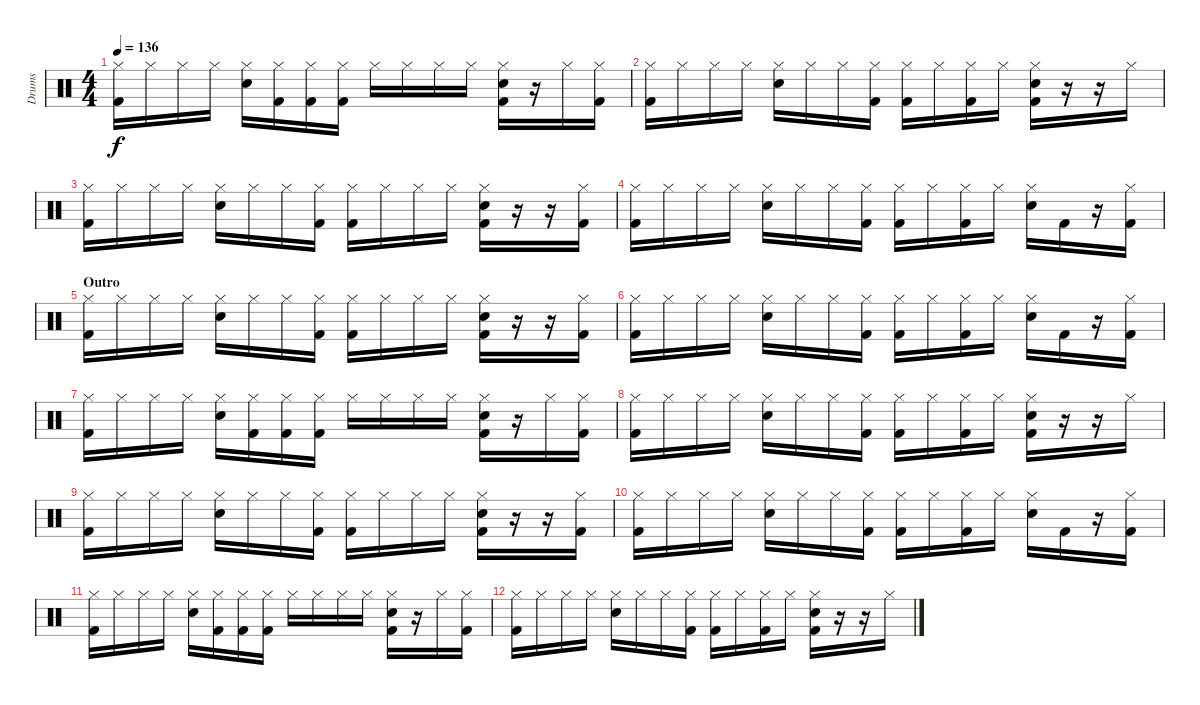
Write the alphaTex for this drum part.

\track ("Drums" "Drums") {instrument percussion}
\staff {score}
\articulation defaults
\ts (4 4)
\tempo 136
\clef neutral
\ks c
("Hi-Hat (closed)" "Kick (hit) 2").16{dy f} "Hi-Hat (closed)".16 "Hi-Hat (closed)".16 "Hi-Hat (closed)".16 ("Electric Snare (hit)" "Hi-Hat (closed)").16 ("Hi-Hat (closed)" "Kick (hit) 2").16 ("Hi-Hat (closed)" "Kick (hit) 2").16 ("Hi-Hat (closed)" "Kick (hit) 2").16 "Hi-Hat (closed)".16 "Hi-Hat (closed)".16 "Hi-Hat (closed)".16 "Hi-Hat (closed)".16 ("Electric Snare (hit)" "Hi-Hat (closed)" "Kick (hit) 2").16 r.16 "Hi-Hat (closed)".16 ("Hi-Hat (closed)" "Kick (hit) 2").16 |
("Hi-Hat (closed)" "Kick (hit) 2").16 "Hi-Hat (closed)".16 "Hi-Hat (closed)".16 "Hi-Hat (closed)".16 ("Electric Snare (hit)" "Hi-Hat (closed)").16 "Hi-Hat (closed)".16 "Hi-Hat (closed)".16 ("Hi-Hat (closed)" "Kick (hit) 2").16 ("Hi-Hat (closed)" "Kick (hit) 2").16 "Hi-Hat (closed)".16 ("Hi-Hat (closed)" "Kick (hit) 2").16 "Hi-Hat (closed)".16 ("Electric Snare (hit)" "Hi-Hat (closed)" "Kick (hit) 2").16 r.16 r.16 "Hi-Hat (closed)".16 |
("Hi-Hat (closed)" "Kick (hit) 2").16 "Hi-Hat (closed)".16 "Hi-Hat (closed)".16 "Hi-Hat (closed)".16 ("Electric Snare (hit)" "Hi-Hat (closed)").16 "Hi-Hat (closed)".16 "Hi-Hat (closed)".16 ("Hi-Hat (closed)" "Kick (hit) 2").16 ("Hi-Hat (closed)" "Kick (hit) 2").16 "Hi-Hat (closed)".16 "Hi-Hat (closed)".16 "Hi-Hat (closed)".16 ("Electric Snare (hit)" "Hi-Hat (closed)" "Kick (hit) 2").16 r.16 r.16 ("Hi-Hat (closed)" "Kick (hit) 2").16 |
("Hi-Hat (closed)" "Kick (hit) 2").16 "Hi-Hat (closed)".16 "Hi-Hat (closed)".16 "Hi-Hat (closed)".16 ("Electric Snare (hit)" "Hi-Hat (closed)").16 "Hi-Hat (closed)".16 "Hi-Hat (closed)".16 ("Hi-Hat (closed)" "Kick (hit) 2").16 ("Hi-Hat (closed)" "Kick (hit) 2").16 "Hi-Hat (closed)".16 ("Hi-Hat (closed)" "Kick (hit) 2").16 "Hi-Hat (closed)".16 ("Electric Snare (hit)" "Hi-Hat (closed)").16 "Kick (hit) 2".16 r.16 ("Hi-Hat (closed)" "Kick (hit) 2").16 |
\section ("" "Outro")
("Hi-Hat (closed)" "Kick (hit) 2").16 "Hi-Hat (closed)".16 "Hi-Hat (closed)".16 "Hi-Hat (closed)".16 ("Electric Snare (hit)" "Hi-Hat (closed)").16 "Hi-Hat (closed)".16 "Hi-Hat (closed)".16 ("Hi-Hat (closed)" "Kick (hit) 2").16 ("Hi-Hat (closed)" "Kick (hit) 2").16 "Hi-Hat (closed)".16 "Hi-Hat (closed)".16 "Hi-Hat (closed)".16 ("Electric Snare (hit)" "Hi-Hat (closed)" "Kick (hit) 2").16 r.16 r.16 ("Hi-Hat (closed)" "Kick (hit) 2").16 |
("Hi-Hat (closed)" "Kick (hit) 2").16 "Hi-Hat (closed)".16 "Hi-Hat (closed)".16 "Hi-Hat (closed)".16 ("Electric Snare (hit)" "Hi-Hat (closed)").16 "Hi-Hat (closed)".16 "Hi-Hat (closed)".16 ("Hi-Hat (closed)" "Kick (hit) 2").16 ("Hi-Hat (closed)" "Kick (hit) 2").16 "Hi-Hat (closed)".16 ("Hi-Hat (closed)" "Kick (hit) 2").16 "Hi-Hat (closed)".16 ("Electric Snare (hit)" "Hi-Hat (closed)").16 "Kick (hit) 2".16 r.16 ("Hi-Hat (closed)" "Kick (hit) 2").16 |
("Hi-Hat (closed)" "Kick (hit) 2").16 "Hi-Hat (closed)".16 "Hi-Hat (closed)".16 "Hi-Hat (closed)".16 ("Electric Snare (hit)" "Hi-Hat (closed)").16 ("Hi-Hat (closed)" "Kick (hit) 2").16 ("Hi-Hat (closed)" "Kick (hit) 2").16 ("Hi-Hat (closed)" "Kick (hit) 2").16 "Hi-Hat (closed)".16 "Hi-Hat (closed)".16 "Hi-Hat (closed)".16 "Hi-Hat (closed)".16 ("Electric Snare (hit)" "Hi-Hat (closed)" "Kick (hit) 2").16 r.16 "Hi-Hat (closed)".16 ("Hi-Hat (closed)" "Kick (hit) 2").16 |
("Hi-Hat (closed)" "Kick (hit) 2").16 "Hi-Hat (closed)".16 "Hi-Hat (closed)".16 "Hi-Hat (closed)".16 ("Electric Snare (hit)" "Hi-Hat (closed)").16 "Hi-Hat (closed)".16 "Hi-Hat (closed)".16 ("Hi-Hat (closed)" "Kick (hit) 2").16 ("Hi-Hat (closed)" "Kick (hit) 2").16 "Hi-Hat (closed)".16 ("Hi-Hat (closed)" "Kick (hit) 2").16 "Hi-Hat (closed)".16 ("Electric Snare (hit)" "Hi-Hat (closed)" "Kick (hit) 2").16 r.16 r.16 "Hi-Hat (closed)".16 |
("Hi-Hat (closed)" "Kick (hit) 2").16 "Hi-Hat (closed)".16 "Hi-Hat (closed)".16 "Hi-Hat (closed)".16 ("Electric Snare (hit)" "Hi-Hat (closed)").16 "Hi-Hat (closed)".16 "Hi-Hat (closed)".16 ("Hi-Hat (closed)" "Kick (hit) 2").16 ("Hi-Hat (closed)" "Kick (hit) 2").16 "Hi-Hat (closed)".16 "Hi-Hat (closed)".16 "Hi-Hat (closed)".16 ("Electric Snare (hit)" "Hi-Hat (closed)" "Kick (hit) 2").16 r.16 r.16 ("Hi-Hat (closed)" "Kick (hit) 2").16 |
("Hi-Hat (closed)" "Kick (hit) 2").16 "Hi-Hat (closed)".16 "Hi-Hat (closed)".16 "Hi-Hat (closed)".16 ("Electric Snare (hit)" "Hi-Hat (closed)").16 "Hi-Hat (closed)".16 "Hi-Hat (closed)".16 ("Hi-Hat (closed)" "Kick (hit) 2").16 ("Hi-Hat (closed)" "Kick (hit) 2").16 "Hi-Hat (closed)".16 ("Hi-Hat (closed)" "Kick (hit) 2").16 "Hi-Hat (closed)".16 ("Electric Snare (hit)" "Hi-Hat (closed)").16 "Kick (hit) 2".16 r.16 ("Hi-Hat (closed)" "Kick (hit) 2").16 |
("Hi-Hat (closed)" "Kick (hit) 2").16 "Hi-Hat (closed)".16 "Hi-Hat (closed)".16 "Hi-Hat (closed)".16 ("Electric Snare (hit)" "Hi-Hat (closed)").16 ("Hi-Hat (closed)" "Kick (hit) 2").16 ("Hi-Hat (closed)" "Kick (hit) 2").16 ("Hi-Hat (closed)" "Kick (hit) 2").16 "Hi-Hat (closed)".16 "Hi-Hat (closed)".16 "Hi-Hat (closed)".16 "Hi-Hat (closed)".16 ("Electric Snare (hit)" "Hi-Hat (closed)" "Kick (hit) 2").16 r.16 "Hi-Hat (closed)".16 ("Hi-Hat (closed)" "Kick (hit) 2").16 |
("Hi-Hat (closed)" "Kick (hit) 2").16 "Hi-Hat (closed)".16 "Hi-Hat (closed)".16 "Hi-Hat (closed)".16 ("Electric Snare (hit)" "Hi-Hat (closed)").16 "Hi-Hat (closed)".16 "Hi-Hat (closed)".16 ("Hi-Hat (closed)" "Kick (hit) 2").16 ("Hi-Hat (closed)" "Kick (hit) 2").16 "Hi-Hat (closed)".16 ("Hi-Hat (closed)" "Kick (hit) 2").16 "Hi-Hat (closed)".16 ("Electric Snare (hit)" "Hi-Hat (closed)" "Kick (hit) 2").16 r.16 r.16 "Hi-Hat (closed)".16
